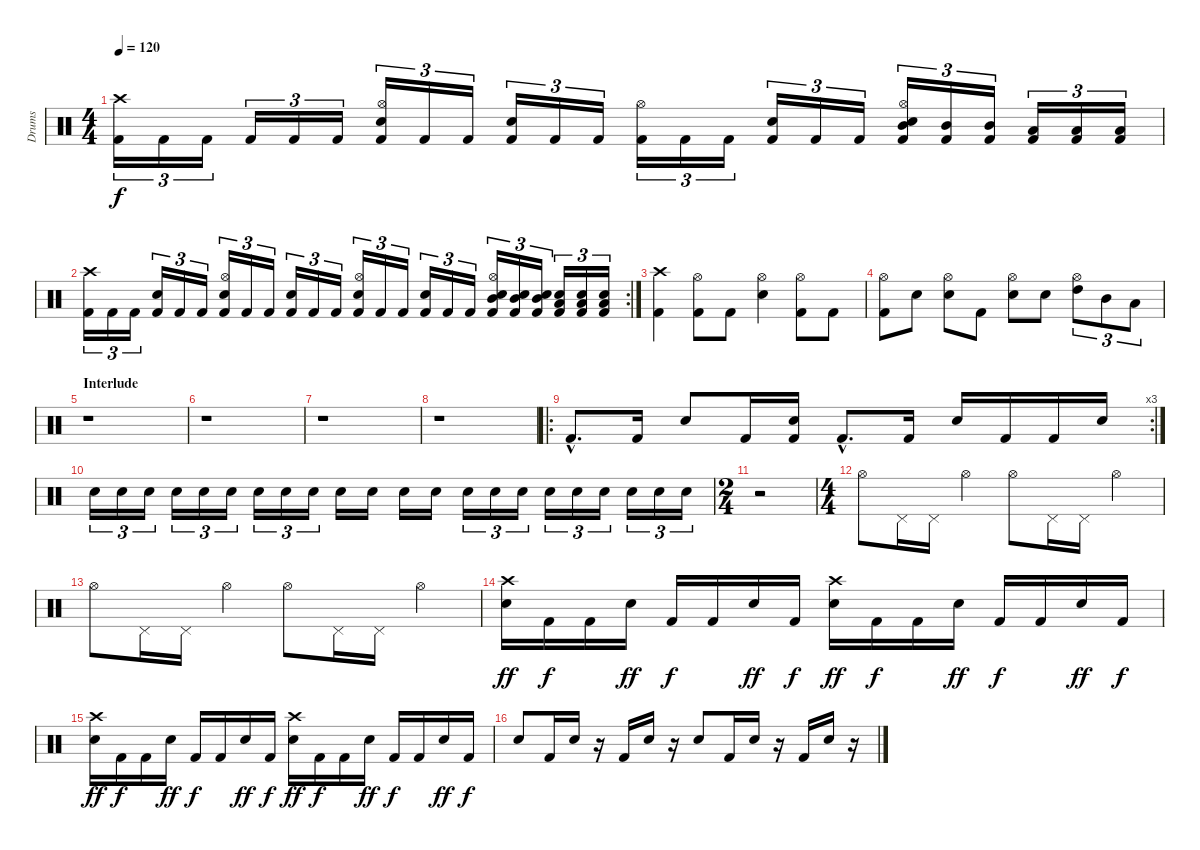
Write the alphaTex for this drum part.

\track ("Drums" "Drums") {instrument percussion}
\staff {score}
\articulation defaults
\ts (4 4)
\tempo 120
\clef neutral
\ks c
("Crash high (hit)" "Kick (hit) 2").16{tu (3 2) dy f} "Kick (hit) 2".16{tu (3 2)} "Kick (hit) 2".16{tu (3 2)} "Kick (hit) 2".16{tu (3 2)} "Kick (hit) 2".16{tu (3 2)} "Kick (hit) 2".16{tu (3 2)} ("Hi-Hat (open)" "Electric Snare (hit)" "Kick (hit) 2").16{tu (3 2)} "Kick (hit) 2".16{tu (3 2)} "Kick (hit) 2".16{tu (3 2)} ("Electric Snare (hit)" "Kick (hit) 2").16{tu (3 2)} "Kick (hit) 2".16{tu (3 2)} "Kick (hit) 2".16{tu (3 2)} ("Hi-Hat (open)" "Kick (hit) 2").16{tu (3 2)} "Kick (hit) 2".16{tu (3 2)} "Kick (hit) 2".16{tu (3 2)} ("Electric Snare (hit)" "Kick (hit) 2").16{tu (3 2)} "Kick (hit) 2".16{tu (3 2)} "Kick (hit) 2".16{tu (3 2)} ("Hi-Hat (open)" "Electric Snare (hit)" "Mid Tom (hit)" "Kick (hit) 2").16{tu (3 2)} ("Mid Tom (hit)" "Kick (hit) 2").16{tu (3 2)} ("Mid Tom (hit)" "Kick (hit) 2").16{tu (3 2)} ("Low Tom (hit)" "Kick (hit) 2").16{tu (3 2)} ("Low Tom (hit)" "Kick (hit) 2").16{tu (3 2)} ("Low Tom (hit)" "Kick (hit) 2").16{tu (3 2)} |
\rc 2
("Crash high (hit)" "Kick (hit) 2").16{tu (3 2)} "Kick (hit) 2".16{tu (3 2)} "Kick (hit) 2".16{tu (3 2)} ("Electric Snare (hit)" "Kick (hit) 2").16{tu (3 2)} "Kick (hit) 2".16{tu (3 2)} "Kick (hit) 2".16{tu (3 2)} ("Hi-Hat (open)" "Electric Snare (hit)" "Kick (hit) 2").16{tu (3 2)} "Kick (hit) 2".16{tu (3 2)} "Kick (hit) 2".16{tu (3 2)} ("Electric Snare (hit)" "Kick (hit) 2").16{tu (3 2)} "Kick (hit) 2".16{tu (3 2)} "Kick (hit) 2".16{tu (3 2)} ("Hi-Hat (open)" "Electric Snare (hit)" "Kick (hit) 2").16{tu (3 2)} "Kick (hit) 2".16{tu (3 2)} "Kick (hit) 2".16{tu (3 2)} ("Electric Snare (hit)" "Kick (hit) 2").16{tu (3 2)} "Kick (hit) 2".16{tu (3 2)} "Kick (hit) 2".16{tu (3 2)} ("Hi-Hat (open)" "Electric Snare (hit)" "Mid Tom (hit)" "Kick (hit) 2").16{tu (3 2)} ("Electric Snare (hit)" "Mid Tom (hit)" "Kick (hit) 2").16{tu (3 2)} ("Electric Snare (hit)" "Mid Tom (hit)" "Kick (hit) 2").16{tu (3 2)} ("Electric Snare (hit)" "Low Tom (hit)" "Kick (hit) 2").16{tu (3 2)} ("Electric Snare (hit)" "Low Tom (hit)" "Kick (hit) 2").16{tu (3 2)} ("Electric Snare (hit)" "Low Tom (hit)" "Kick (hit) 2").16{tu (3 2)} |
("Crash high (hit)" "Kick (hit) 2").4 ("Hi-Hat (open)" "Kick (hit) 2").8 "Kick (hit) 2".8 ("Hi-Hat (open)" "Electric Snare (hit)").4 ("Hi-Hat (open)" "Kick (hit) 2").8 "Kick (hit) 2".8 |
("Hi-Hat (open)" "Kick (hit) 2").8 "Electric Snare (hit)".8 ("Hi-Hat (open)" "Electric Snare (hit)").8 "Kick (hit) 2".8 ("Hi-Hat (open)" "Electric Snare (hit)").8 "Electric Snare (hit)".8 ("Hi-Hat (open)" "High Tom (hit)").8{tu (3 2)} "Mid Tom (hit)".8{tu (3 2)} "Low Tom (hit)".8{tu (3 2)} |
\section ("" "Interlude")
r.1 |
r.1 |
r.1 |
r.1 |
\ro
\rc 3 "Kick (hit) 2"{hac}.8{d} "Kick (hit) 2".16 "Electric Snare (hit)".8 "Kick (hit) 2".16
("Electric Snare (hit)" "Kick (hit) 2").16 "Kick (hit) 2"{hac}.8{d} "Kick (hit) 2".16 "Electric Snare (hit)".16 "Kick (hit) 2".16 "Kick (hit) 2".16 "Electric Snare (hit)".16 |
"Electric Snare (hit)".16{tu (3 2)} "Electric Snare (hit)".16{tu (3 2)} "Electric Snare (hit)".16{tu (3 2)} "Electric Snare (hit)".16{tu (3 2)} "Electric Snare (hit)".16{tu (3 2)} "Electric Snare (hit)".16{tu (3 2)} "Electric Snare (hit)".16{tu (3 2)} "Electric Snare (hit)".16{tu (3 2)} "Electric Snare (hit)".16{tu (3 2)} "Electric Snare (hit)".16 "Electric Snare (hit)".16 "Electric Snare (hit)".16 "Electric Snare (hit)".16 "Electric Snare (hit)".16{tu (3 2)} "Electric Snare (hit)".16{tu (3 2)} "Electric Snare (hit)".16{tu (3 2)} "Electric Snare (hit)".16{tu (3 2)} "Electric Snare (hit)".16{tu (3 2)} "Electric Snare (hit)".16{tu (3 2)} "Electric Snare (hit)".16{tu (3 2)} "Electric Snare (hit)".16{tu (3 2)} "Electric Snare (hit)".16{tu (3 2)} |
\ts (2 4)
r.2 |
\ts (4 4)
"Hi-Hat (open)".8 "Pedal Hi-Hat (hit)".16 "Pedal Hi-Hat (hit)".16 "Hi-Hat (open)".4 "Hi-Hat (open)".8 "Pedal Hi-Hat (hit)".16 "Pedal Hi-Hat (hit)".16 "Hi-Hat (open)".4 |
"Hi-Hat (open)".8 "Pedal Hi-Hat (hit)".16 "Pedal Hi-Hat (hit)".16 "Hi-Hat (open)".4 "Hi-Hat (open)".8 "Pedal Hi-Hat (hit)".16 "Pedal Hi-Hat (hit)".16 "Hi-Hat (open)".4 |
("Crash high (hit)" "Electric Snare (hit)").16{dy ff} "Kick (hit) 2".16{dy f} "Kick (hit) 2".16 "Electric Snare (hit)".16{dy ff} "Kick (hit) 2".16{dy f} "Kick (hit) 2".16 "Electric Snare (hit)".16{dy ff} "Kick (hit) 2".16{dy f} ("Crash high (hit)" "Electric Snare (hit)").16{dy ff} "Kick (hit) 2".16{dy f} "Kick (hit) 2".16 "Electric Snare (hit)".16{dy ff} "Kick (hit) 2".16{dy f} "Kick (hit) 2".16 "Electric Snare (hit)".16{dy ff} "Kick (hit) 2".16{dy f} |
("Crash high (hit)" "Electric Snare (hit)").16{dy ff} "Kick (hit) 2".16{dy f} "Kick (hit) 2".16 "Electric Snare (hit)".16{dy ff} "Kick (hit) 2".16{dy f} "Kick (hit) 2".16 "Electric Snare (hit)".16{dy ff} "Kick (hit) 2".16{dy f} ("Crash high (hit)" "Electric Snare (hit)").16{dy ff} "Kick (hit) 2".16{dy f} "Kick (hit) 2".16 "Electric Snare (hit)".16{dy ff} "Kick (hit) 2".16{dy f} "Kick (hit) 2".16 "Electric Snare (hit)".16{dy ff} "Kick (hit) 2".16{dy f} |
"Electric Snare (hit)".8 "Kick (hit) 2".16 "Electric Snare (hit)".16 r.16 "Kick (hit) 2".16 "Electric Snare (hit)".16 r.16 "Electric Snare (hit)".8 "Kick (hit) 2".16 "Electric Snare (hit)".16 r.16 "Kick (hit) 2".16 "Electric Snare (hit)".16 r.16
